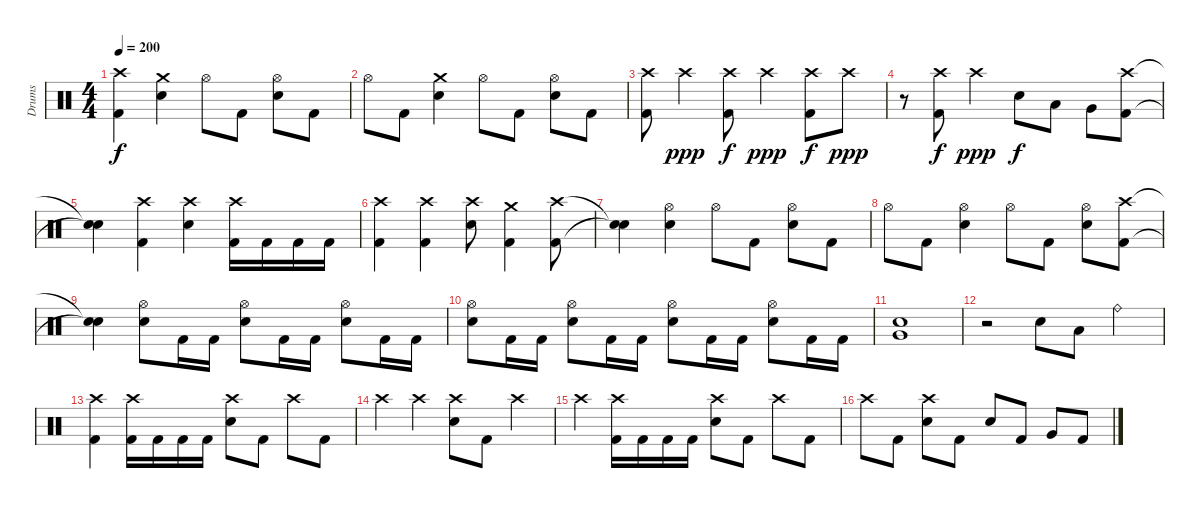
\track ("Drums" "Drums") {instrument percussion}
\staff {score}
\articulation defaults
\ts (4 4)
\tempo 200
\clef neutral
\ks c
("Crash high (hit)" "Kick (hit) 2").4{dy f} ("Crash medium (hit)" "Electric Snare (hit)").4 "Hi-Hat (open)".8 "Kick (hit) 2".8 ("Hi-Hat (open)" "Electric Snare (hit)").8 "Kick (hit) 2".8 |
"Hi-Hat (open)".8 "Kick (hit) 2".8 ("Crash medium (hit)" "Electric Snare (hit)").4 "Hi-Hat (open)".8 "Kick (hit) 2".8 ("Hi-Hat (open)" "Electric Snare (hit)").8 "Kick (hit) 2".8 |
("Crash high (hit)" "Kick (hit) 2").8 "Crash high (hit)".4{dy ppp} ("Crash high (hit)" "Kick (hit) 2").8{dy f} "Crash high (hit)".4{dy ppp} ("Crash high (hit)" "Kick (hit) 2").8{dy f} "Crash high (hit)".8{dy ppp} |
r.8 ("Crash high (hit)" "Kick (hit) 2").8{dy f} "Crash high (hit)".4{dy ppp} "Electric Snare (hit)".8{dy f} "Low Tom (hit)".8 "Very Low Tom (hit)".8 ("Crash high (hit)" "Kick (hit) 2").8 |
("Snare (hit)"{t} "Snare (hit)"{t}).4 ("Crash high (hit)" "Kick (hit) 2").4 ("Crash high (hit)" "Electric Snare (hit)").4 ("Crash high (hit)" "Kick (hit) 2").16 "Kick (hit) 2".16 "Kick (hit) 2".16 "Kick (hit) 2".16 |
("Crash high (hit)" "Kick (hit) 2").4 ("Crash high (hit)" "Kick (hit) 2").4 ("Crash high (hit)" "Electric Snare (hit)").8 ("Crash medium (hit)" "Kick (hit) 2").4 ("Crash high (hit)" "Kick (hit) 2").8 |
("Snare (hit)"{t} "Snare (hit)"{t}).4 ("Hi-Hat (open)" "Electric Snare (hit)").4 "Hi-Hat (open)".8 "Kick (hit) 2".8 ("Hi-Hat (open)" "Electric Snare (hit)").8 "Kick (hit) 2".8 |
"Hi-Hat (open)".8 "Kick (hit) 2".8 ("Hi-Hat (open)" "Electric Snare (hit)").4 "Hi-Hat (open)".8 "Kick (hit) 2".8 ("Hi-Hat (open)" "Electric Snare (hit)").8 ("Crash high (hit)" "Kick (hit) 2").8 |
("Snare (hit)"{t} "Snare (hit)"{t}).4 ("Hi-Hat (open)" "Electric Snare (hit)").8 "Kick (hit) 2".16 "Kick (hit) 2".16 ("Hi-Hat (open)" "Electric Snare (hit)").8 "Kick (hit) 2".16 "Kick (hit) 2".16 ("Hi-Hat (open)" "Electric Snare (hit)").8 "Kick (hit) 2".16 "Kick (hit) 2".16 |
("Hi-Hat (open)" "Electric Snare (hit)").8 "Kick (hit) 2".16 "Kick (hit) 2".16 ("Hi-Hat (open)" "Electric Snare (hit)").8 "Kick (hit) 2".16 "Kick (hit) 2".16 ("Hi-Hat (open)" "Electric Snare (hit)").8 "Kick (hit) 2".16 "Kick (hit) 2".16 ("Hi-Hat (open)" "Electric Snare (hit)").8 "Kick (hit) 2".16 "Kick (hit) 2".16 |
("Very Low Tom (hit)" "Electric Snare (hit)").1 |
r.2 "Electric Snare (hit)".8 "Low Tom (hit)".8 "Ride (bell)".4 |
("Crash high (hit)" "Kick (hit) 2").4 ("Crash high (hit)" "Kick (hit) 2").16 "Kick (hit) 2".16 "Kick (hit) 2".16 "Kick (hit) 2".16 ("Crash high (hit)" "Electric Snare (hit)").8 "Kick (hit) 2".8 "Crash high (hit)".8 "Kick (hit) 2".8 |
"Crash high (hit)".4 "Crash high (hit)".4 ("Crash high (hit)" "Electric Snare (hit)").8 "Kick (hit) 2".8 "Crash high (hit)".4 |
"Crash high (hit)".4 ("Crash high (hit)" "Kick (hit) 2").16 "Kick (hit) 2".16 "Kick (hit) 2".16 "Kick (hit) 2".16 ("Crash high (hit)" "Electric Snare (hit)").8 "Kick (hit) 2".8 "Crash high (hit)".8 "Kick (hit) 2".8 |
"Crash high (hit)".8 "Kick (hit) 2".8 ("Crash high (hit)" "Electric Snare (hit)").8 "Kick (hit) 2".8 "Electric Snare (hit)".8 "Kick (hit) 2".8 "Very Low Tom (hit)".8 "Kick (hit) 2".8
